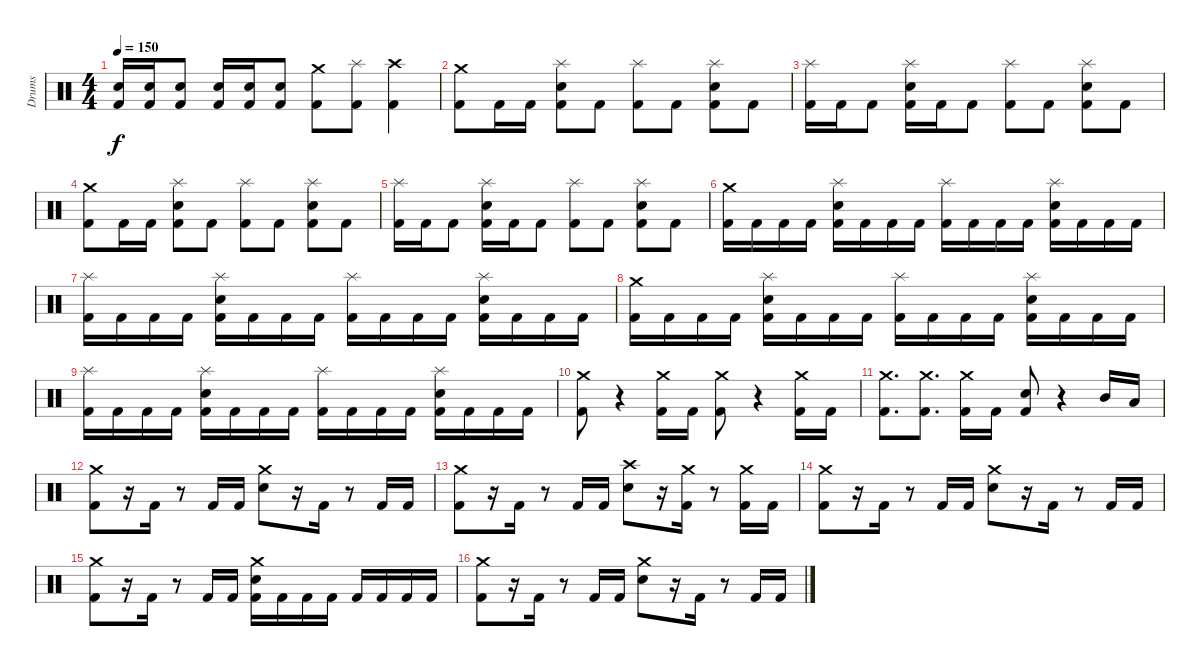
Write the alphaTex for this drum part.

\track ("Drums" "Drums") {instrument percussion}
\staff {score}
\articulation defaults
\ts (4 4)
\tempo 150
\clef neutral
\ks c
("Electric Snare (hit)" "Kick (hit) 2").16{dy f} ("Electric Snare (hit)" "Kick (hit) 2").16 ("Electric Snare (hit)" "Kick (hit) 2").8 ("Electric Snare (hit)" "Kick (hit) 2").16 ("Electric Snare (hit)" "Kick (hit) 2").16 ("Electric Snare (hit)" "Kick (hit) 2").8 ("Crash medium (hit)" "Kick (hit) 2").8 ("Splash (hit)" "Kick (hit) 2").8 ("Crash high (hit)" "Kick (hit) 2").4 |
("Crash medium (hit)" "Kick (hit) 2").8 "Kick (hit) 2".16 "Kick (hit) 2".16 ("Splash (hit)" "Electric Snare (hit)" "Kick (hit) 2").8 "Kick (hit) 2".8 ("Splash (hit)" "Kick (hit) 2").8 "Kick (hit) 2".8 ("Splash (hit)" "Electric Snare (hit)" "Kick (hit) 2").8 "Kick (hit) 2".8 |
("Splash (hit)" "Kick (hit) 2").16 "Kick (hit) 2".16 "Kick (hit) 2".8 ("Splash (hit)" "Electric Snare (hit)" "Kick (hit) 2").16 "Kick (hit) 2".16 "Kick (hit) 2".8 ("Splash (hit)" "Kick (hit) 2").8 "Kick (hit) 2".8 ("Splash (hit)" "Electric Snare (hit)" "Kick (hit) 2").8 "Kick (hit) 2".8 |
("Crash medium (hit)" "Kick (hit) 2").8 "Kick (hit) 2".16 "Kick (hit) 2".16 ("Splash (hit)" "Electric Snare (hit)" "Kick (hit) 2").8 "Kick (hit) 2".8 ("Splash (hit)" "Kick (hit) 2").8 "Kick (hit) 2".8 ("Splash (hit)" "Electric Snare (hit)" "Kick (hit) 2").8 "Kick (hit) 2".8 |
("Splash (hit)" "Kick (hit) 2").16 "Kick (hit) 2".16 "Kick (hit) 2".8 ("Splash (hit)" "Electric Snare (hit)" "Kick (hit) 2").16 "Kick (hit) 2".16 "Kick (hit) 2".8 ("Splash (hit)" "Kick (hit) 2").8 "Kick (hit) 2".8 ("Splash (hit)" "Electric Snare (hit)" "Kick (hit) 2").8 "Kick (hit) 2".8 |
("Crash medium (hit)" "Kick (hit) 2").16 "Kick (hit) 2".16 "Kick (hit) 2".16 "Kick (hit) 2".16 ("Splash (hit)" "Electric Snare (hit)" "Kick (hit) 2").16 "Kick (hit) 2".16 "Kick (hit) 2".16 "Kick (hit) 2".16 ("Splash (hit)" "Kick (hit) 2").16 "Kick (hit) 2".16 "Kick (hit) 2".16 "Kick (hit) 2".16 ("Splash (hit)" "Electric Snare (hit)" "Kick (hit) 2").16 "Kick (hit) 2".16 "Kick (hit) 2".16 "Kick (hit) 2".16 |
("Splash (hit)" "Kick (hit) 2").16 "Kick (hit) 2".16 "Kick (hit) 2".16 "Kick (hit) 2".16 ("Splash (hit)" "Electric Snare (hit)" "Kick (hit) 2").16 "Kick (hit) 2".16 "Kick (hit) 2".16 "Kick (hit) 2".16 ("Splash (hit)" "Kick (hit) 2").16 "Kick (hit) 2".16 "Kick (hit) 2".16 "Kick (hit) 2".16 ("Splash (hit)" "Electric Snare (hit)" "Kick (hit) 2").16 "Kick (hit) 2".16 "Kick (hit) 2".16 "Kick (hit) 2".16 |
("Crash medium (hit)" "Kick (hit) 2").16 "Kick (hit) 2".16 "Kick (hit) 2".16 "Kick (hit) 2".16 ("Splash (hit)" "Electric Snare (hit)" "Kick (hit) 2").16 "Kick (hit) 2".16 "Kick (hit) 2".16 "Kick (hit) 2".16 ("Splash (hit)" "Kick (hit) 2").16 "Kick (hit) 2".16 "Kick (hit) 2".16 "Kick (hit) 2".16 ("Splash (hit)" "Electric Snare (hit)" "Kick (hit) 2").16 "Kick (hit) 2".16 "Kick (hit) 2".16 "Kick (hit) 2".16 |
("Splash (hit)" "Kick (hit) 2").16 "Kick (hit) 2".16 "Kick (hit) 2".16 "Kick (hit) 2".16 ("Splash (hit)" "Electric Snare (hit)" "Kick (hit) 2").16 "Kick (hit) 2".16 "Kick (hit) 2".16 "Kick (hit) 2".16 ("Splash (hit)" "Kick (hit) 2").16 "Kick (hit) 2".16 "Kick (hit) 2".16 "Kick (hit) 2".16 ("Splash (hit)" "Electric Snare (hit)" "Kick (hit) 2").16 "Kick (hit) 2".16 "Kick (hit) 2".16 "Kick (hit) 2".16 |
("Crash medium (hit)" "Kick (hit) 2").8 r.4 ("Crash medium (hit)" "Kick (hit) 2").16 "Kick (hit) 2".16 ("Crash medium (hit)" "Kick (hit) 2").8 r.4 ("Crash medium (hit)" "Kick (hit) 2").16 "Kick (hit) 2".16 |
("Crash medium (hit)" "Kick (hit) 2").8{d} ("Crash medium (hit)" "Kick (hit) 2").8{d} ("Crash medium (hit)" "Kick (hit) 2").16 "Kick (hit) 2".16 ("Electric Snare (hit)" "Kick (hit) 2").8 r.4 "Mid Tom (hit)".16 "Low Tom (hit)".16 |
("Crash medium (hit)" "Kick (hit) 2").8 r.16 "Kick (hit) 2".16 r.8 "Kick (hit) 2".16 "Kick (hit) 2".16 ("Crash medium (hit)" "Electric Snare (hit)").8 r.16 "Kick (hit) 2".16 r.8 "Kick (hit) 2".16 "Kick (hit) 2".16 |
("Crash medium (hit)" "Kick (hit) 2").8 r.16 "Kick (hit) 2".16 r.8 "Kick (hit) 2".16 "Kick (hit) 2".16 ("Crash high (hit)" "Electric Snare (hit)").8 r.16 ("Crash medium (hit)" "Kick (hit) 2").16 r.8 ("Crash medium (hit)" "Kick (hit) 2").16 "Kick (hit) 2".16 |
("Crash medium (hit)" "Kick (hit) 2").8 r.16 "Kick (hit) 2".16 r.8 "Kick (hit) 2".16 "Kick (hit) 2".16 ("Crash medium (hit)" "Electric Snare (hit)").8 r.16 "Kick (hit) 2".16 r.8 "Kick (hit) 2".16 "Kick (hit) 2".16 |
("Crash medium (hit)" "Kick (hit) 2").8 r.16 "Kick (hit) 2".16 r.8 "Kick (hit) 2".16 "Kick (hit) 2".16 ("Crash medium (hit)" "Electric Snare (hit)" "Kick (hit) 2").16 "Kick (hit) 2".16 "Kick (hit) 2".16 "Kick (hit) 2".16 "Kick (hit) 2".16 "Kick (hit) 2".16 "Kick (hit) 2".16 "Kick (hit) 2".16 |
("Crash medium (hit)" "Kick (hit) 2").8 r.16 "Kick (hit) 2".16 r.8 "Kick (hit) 2".16 "Kick (hit) 2".16 ("Crash medium (hit)" "Electric Snare (hit)").8 r.16 "Kick (hit) 2".16 r.8 "Kick (hit) 2".16 "Kick (hit) 2".16
